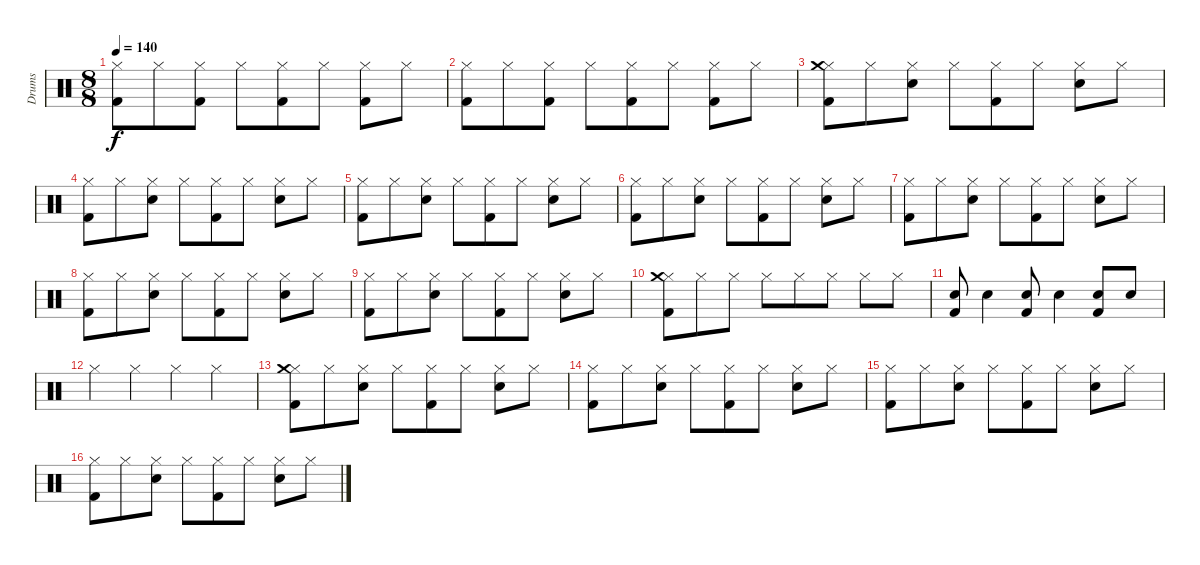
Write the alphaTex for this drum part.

\track ("Drums" "Drums") {instrument percussion}
\staff {score}
\articulation defaults
\ts (8 8)
\tempo 140
\clef neutral
\ks c
("Hi-Hat (closed)" "Kick (hit) 2").8{dy f} "Hi-Hat (closed)".8 ("Hi-Hat (closed)" "Kick (hit) 2").8 "Hi-Hat (closed)".8 ("Hi-Hat (closed)" "Kick (hit) 2").8 "Hi-Hat (closed)".8 ("Hi-Hat (closed)" "Kick (hit) 2").8 "Hi-Hat (closed)".8 |
("Hi-Hat (closed)" "Kick (hit) 2").8 "Hi-Hat (closed)".8 ("Hi-Hat (closed)" "Kick (hit) 2").8 "Hi-Hat (closed)".8 ("Hi-Hat (closed)" "Kick (hit) 2").8 "Hi-Hat (closed)".8 ("Hi-Hat (closed)" "Kick (hit) 2").8 "Hi-Hat (closed)".8 |
("Hi-Hat (closed)" "Kick (hit) 2" "Crash medium (hit)").8 "Hi-Hat (closed)".8 ("Hi-Hat (closed)" "Snare (hit) 2").8 "Hi-Hat (closed)".8 ("Hi-Hat (closed)" "Kick (hit) 2").8 "Hi-Hat (closed)".8 ("Hi-Hat (closed)" "Snare (hit) 2").8 "Hi-Hat (closed)".8 |
("Hi-Hat (closed)" "Kick (hit) 2").8 "Hi-Hat (closed)".8 ("Hi-Hat (closed)" "Snare (hit) 2").8 "Hi-Hat (closed)".8 ("Hi-Hat (closed)" "Kick (hit) 2").8 "Hi-Hat (closed)".8 ("Hi-Hat (closed)" "Snare (hit) 2").8 "Hi-Hat (closed)".8 |
("Hi-Hat (closed)" "Kick (hit) 2").8 "Hi-Hat (closed)".8 ("Hi-Hat (closed)" "Snare (hit) 2").8 "Hi-Hat (closed)".8 ("Hi-Hat (closed)" "Kick (hit) 2").8 "Hi-Hat (closed)".8 ("Hi-Hat (closed)" "Snare (hit) 2").8 "Hi-Hat (closed)".8 |
("Hi-Hat (closed)" "Kick (hit) 2").8 "Hi-Hat (closed)".8 ("Hi-Hat (closed)" "Snare (hit) 2").8 "Hi-Hat (closed)".8 ("Hi-Hat (closed)" "Kick (hit) 2").8 "Hi-Hat (closed)".8 ("Hi-Hat (closed)" "Snare (hit) 2").8 "Hi-Hat (closed)".8 |
("Hi-Hat (closed)" "Kick (hit) 2").8 "Hi-Hat (closed)".8 ("Hi-Hat (closed)" "Snare (hit) 2").8 "Hi-Hat (closed)".8 ("Hi-Hat (closed)" "Kick (hit) 2").8 "Hi-Hat (closed)".8 ("Hi-Hat (closed)" "Snare (hit) 2").8 "Hi-Hat (closed)".8 |
("Hi-Hat (closed)" "Kick (hit) 2").8 "Hi-Hat (closed)".8 ("Hi-Hat (closed)" "Snare (hit) 2").8 "Hi-Hat (closed)".8 ("Hi-Hat (closed)" "Kick (hit) 2").8 "Hi-Hat (closed)".8 ("Hi-Hat (closed)" "Snare (hit) 2").8 "Hi-Hat (closed)".8 |
("Hi-Hat (closed)" "Kick (hit) 2").8 "Hi-Hat (closed)".8 ("Hi-Hat (closed)" "Snare (hit) 2").8 "Hi-Hat (closed)".8 ("Hi-Hat (closed)" "Kick (hit) 2").8 "Hi-Hat (closed)".8 ("Hi-Hat (closed)" "Snare (hit) 2").8 "Hi-Hat (closed)".8 |
("Hi-Hat (closed)" "Kick (hit) 2" "Crash medium (hit)").8 "Hi-Hat (closed)".8 "Hi-Hat (closed)".8 "Hi-Hat (closed)".8 "Hi-Hat (closed)".8 "Hi-Hat (closed)".8 "Hi-Hat (closed)".8 "Hi-Hat (closed)".8 |
("Kick (hit) 2" "Snare (hit) 2").8 "Snare (hit) 2".4 ("Kick (hit) 2" "Snare (hit) 2").8 "Snare (hit) 2".4 ("Kick (hit) 2" "Snare (hit) 2").8 "Snare (hit) 2".8 |
"Hi-Hat (closed)".4 "Hi-Hat (closed)".4 "Hi-Hat (closed)".4 "Hi-Hat (closed)".4 |
("Hi-Hat (closed)" "Kick (hit) 2" "Crash medium (hit)").8 "Hi-Hat (closed)".8 ("Hi-Hat (closed)" "Snare (hit) 2").8 "Hi-Hat (closed)".8 ("Hi-Hat (closed)" "Kick (hit) 2").8 "Hi-Hat (closed)".8 ("Hi-Hat (closed)" "Snare (hit) 2").8 "Hi-Hat (closed)".8 |
("Hi-Hat (closed)" "Kick (hit) 2").8 "Hi-Hat (closed)".8 ("Hi-Hat (closed)" "Snare (hit) 2").8 "Hi-Hat (closed)".8 ("Hi-Hat (closed)" "Kick (hit) 2").8 "Hi-Hat (closed)".8 ("Hi-Hat (closed)" "Snare (hit) 2").8 "Hi-Hat (closed)".8 |
("Hi-Hat (closed)" "Kick (hit) 2").8 "Hi-Hat (closed)".8 ("Hi-Hat (closed)" "Snare (hit) 2").8 "Hi-Hat (closed)".8 ("Hi-Hat (closed)" "Kick (hit) 2").8 "Hi-Hat (closed)".8 ("Hi-Hat (closed)" "Snare (hit) 2").8 "Hi-Hat (closed)".8 |
("Hi-Hat (closed)" "Kick (hit) 2").8 "Hi-Hat (closed)".8 ("Hi-Hat (closed)" "Snare (hit) 2").8 "Hi-Hat (closed)".8 ("Hi-Hat (closed)" "Kick (hit) 2").8 "Hi-Hat (closed)".8 ("Hi-Hat (closed)" "Snare (hit) 2").8 "Hi-Hat (closed)".8
